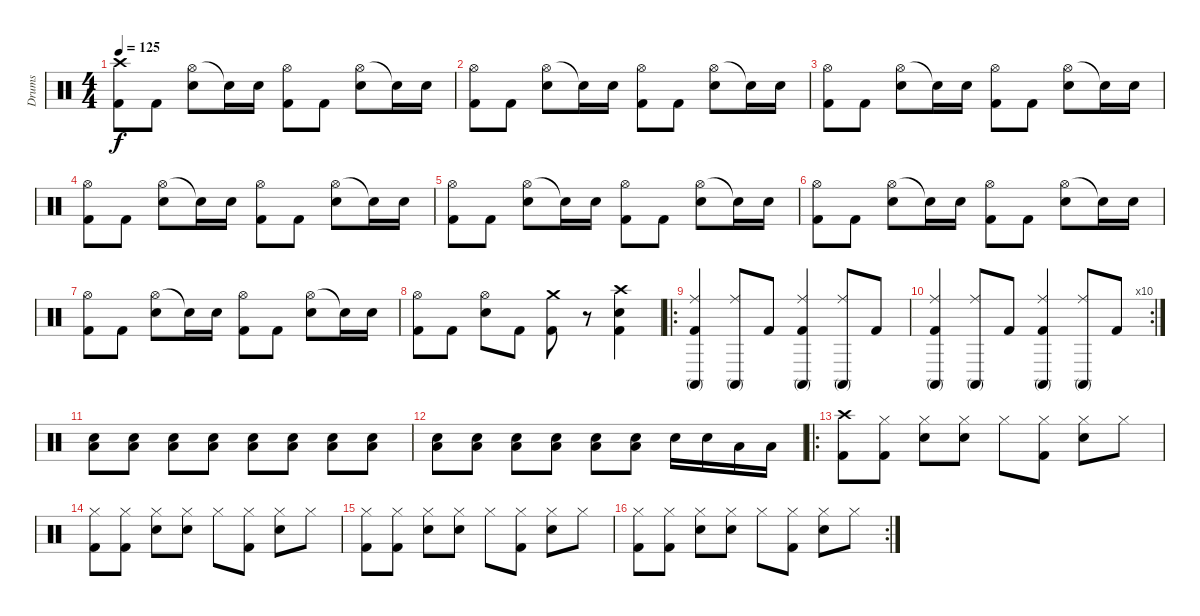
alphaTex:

\track ("Drums" "Drums") {instrument percussion}
\staff {score}
\articulation defaults
\ts (4 4)
\tempo 125
\clef neutral
\ks c
("Crash high (hit)" "Kick (hit) 2").8{dy f} "Kick (hit) 2".8 ("Hi-Hat (open)" "Electric Snare (hit)").8 "Snare (hit)"{t}.16 "Electric Snare (hit)".16 ("Hi-Hat (open)" "Kick (hit) 2").8 "Kick (hit) 2".8 ("Hi-Hat (open)" "Electric Snare (hit)").8 "Electric Snare (hit)"{t}.16 "Electric Snare (hit)".16 |
("Hi-Hat (open)" "Kick (hit) 2").8 "Kick (hit) 2".8 ("Hi-Hat (open)" "Electric Snare (hit)").8 "Snare (hit)"{t}.16 "Electric Snare (hit)".16 ("Hi-Hat (open)" "Kick (hit) 2").8 "Kick (hit) 2".8 ("Hi-Hat (open)" "Electric Snare (hit)").8 "Electric Snare (hit)"{t}.16 "Electric Snare (hit)".16 |
("Hi-Hat (open)" "Kick (hit) 2").8 "Kick (hit) 2".8 ("Hi-Hat (open)" "Electric Snare (hit)").8 "Snare (hit)"{t}.16 "Electric Snare (hit)".16 ("Hi-Hat (open)" "Kick (hit) 2").8 "Kick (hit) 2".8 ("Hi-Hat (open)" "Electric Snare (hit)").8 "Electric Snare (hit)"{t}.16 "Electric Snare (hit)".16 |
("Hi-Hat (open)" "Kick (hit) 2").8 "Kick (hit) 2".8 ("Hi-Hat (open)" "Electric Snare (hit)").8 "Snare (hit)"{t}.16 "Electric Snare (hit)".16 ("Hi-Hat (open)" "Kick (hit) 2").8 "Kick (hit) 2".8 ("Hi-Hat (open)" "Electric Snare (hit)").8 "Electric Snare (hit)"{t}.16 "Electric Snare (hit)".16 |
("Hi-Hat (open)" "Kick (hit) 2").8 "Kick (hit) 2".8 ("Hi-Hat (open)" "Electric Snare (hit)").8 "Snare (hit)"{t}.16 "Electric Snare (hit)".16 ("Hi-Hat (open)" "Kick (hit) 2").8 "Kick (hit) 2".8 ("Hi-Hat (open)" "Electric Snare (hit)").8 "Electric Snare (hit)"{t}.16 "Electric Snare (hit)".16 |
("Hi-Hat (open)" "Kick (hit) 2").8 "Kick (hit) 2".8 ("Hi-Hat (open)" "Electric Snare (hit)").8 "Snare (hit)"{t}.16 "Electric Snare (hit)".16 ("Hi-Hat (open)" "Kick (hit) 2").8 "Kick (hit) 2".8 ("Hi-Hat (open)" "Electric Snare (hit)").8 "Electric Snare (hit)"{t}.16 "Electric Snare (hit)".16 |
("Hi-Hat (open)" "Kick (hit) 2").8 "Kick (hit) 2".8 ("Hi-Hat (open)" "Electric Snare (hit)").8 "Snare (hit)"{t}.16 "Electric Snare (hit)".16 ("Hi-Hat (open)" "Kick (hit) 2").8 "Kick (hit) 2".8 ("Hi-Hat (open)" "Electric Snare (hit)").8 "Electric Snare (hit)"{t}.16 "Electric Snare (hit)".16 |
("Hi-Hat (open)" "Kick (hit) 2").8 "Kick (hit) 2".8 ("Hi-Hat (open)" "Electric Snare (hit)").8 "Kick (hit) 2".8 ("Crash medium (hit)" "Kick (hit) 2").8 r.8 ("Crash high (hit)" "Electric Snare (hit)" "Kick (hit) 2").4 |
\ro
("Ride (middle)" "Conga high (mute)" "Kick (hit) 2").4 ("Ride (middle)" "Conga high (mute)").8 "Kick (hit) 2".8 ("Ride (middle)" "Conga high (mute)" "Kick (hit) 2").4 ("Ride (middle)" "Conga high (mute)").8 "Kick (hit) 2".8 |
\rc 10
("Ride (middle)" "Conga high (mute)" "Kick (hit) 2").4 ("Ride (middle)" "Conga high (mute)").8 "Kick (hit) 2".8 ("Ride (middle)" "Conga high (mute)" "Kick (hit) 2").4 ("Ride (middle)" "Conga high (mute)").8 "Kick (hit) 2".8 |
("Low Floor Tom (hit)" "Electric Snare (hit)").8 ("Low Floor Tom (hit)" "Electric Snare (hit)").8 ("Low Floor Tom (hit)" "Electric Snare (hit)").8 ("Low Floor Tom (hit)" "Electric Snare (hit)").8 ("Low Floor Tom (hit)" "Electric Snare (hit)").8 ("Low Floor Tom (hit)" "Electric Snare (hit)").8 ("Low Floor Tom (hit)" "Electric Snare (hit)").8 ("Low Floor Tom (hit)" "Electric Snare (hit)").8 |
("Low Floor Tom (hit)" "Electric Snare (hit)").8 ("Low Floor Tom (hit)" "Electric Snare (hit)").8 ("Low Floor Tom (hit)" "Electric Snare (hit)").8 ("Low Floor Tom (hit)" "Electric Snare (hit)").8 ("Low Floor Tom (hit)" "Electric Snare (hit)").8 ("Low Floor Tom (hit)" "Electric Snare (hit)").8 "Electric Snare (hit)".16 "Electric Snare (hit)".16 "Low Tom (hit)".16 "Low Tom (hit)".16 |
\ro
("Crash high (hit)" "Kick (hit) 2").8 ("Hi-Hat (closed)" "Kick (hit) 2").8 ("Hi-Hat (closed)" "Electric Snare (hit)").8 ("Hi-Hat (closed)" "Electric Snare (hit)").8 "Hi-Hat (closed)".8 ("Hi-Hat (closed)" "Kick (hit) 2").8 ("Hi-Hat (closed)" "Electric Snare (hit)").8 "Hi-Hat (closed)".8 |
("Hi-Hat (closed)" "Kick (hit) 2").8 ("Hi-Hat (closed)" "Kick (hit) 2").8 ("Hi-Hat (closed)" "Electric Snare (hit)").8 ("Hi-Hat (closed)" "Electric Snare (hit)").8 "Hi-Hat (closed)".8 ("Hi-Hat (closed)" "Kick (hit) 2").8 ("Hi-Hat (closed)" "Electric Snare (hit)").8 "Hi-Hat (closed)".8 |
("Hi-Hat (closed)" "Kick (hit) 2").8 ("Hi-Hat (closed)" "Kick (hit) 2").8 ("Hi-Hat (closed)" "Electric Snare (hit)").8 ("Hi-Hat (closed)" "Electric Snare (hit)").8 "Hi-Hat (closed)".8 ("Hi-Hat (closed)" "Kick (hit) 2").8 ("Hi-Hat (closed)" "Electric Snare (hit)").8 "Hi-Hat (closed)".8 |
\rc 2
("Hi-Hat (closed)" "Kick (hit) 2").8 ("Hi-Hat (closed)" "Kick (hit) 2").8 ("Hi-Hat (closed)" "Electric Snare (hit)").8 ("Hi-Hat (closed)" "Electric Snare (hit)").8 "Hi-Hat (closed)".8 ("Hi-Hat (closed)" "Kick (hit) 2").8 ("Hi-Hat (closed)" "Electric Snare (hit)").8 "Hi-Hat (closed)".8
